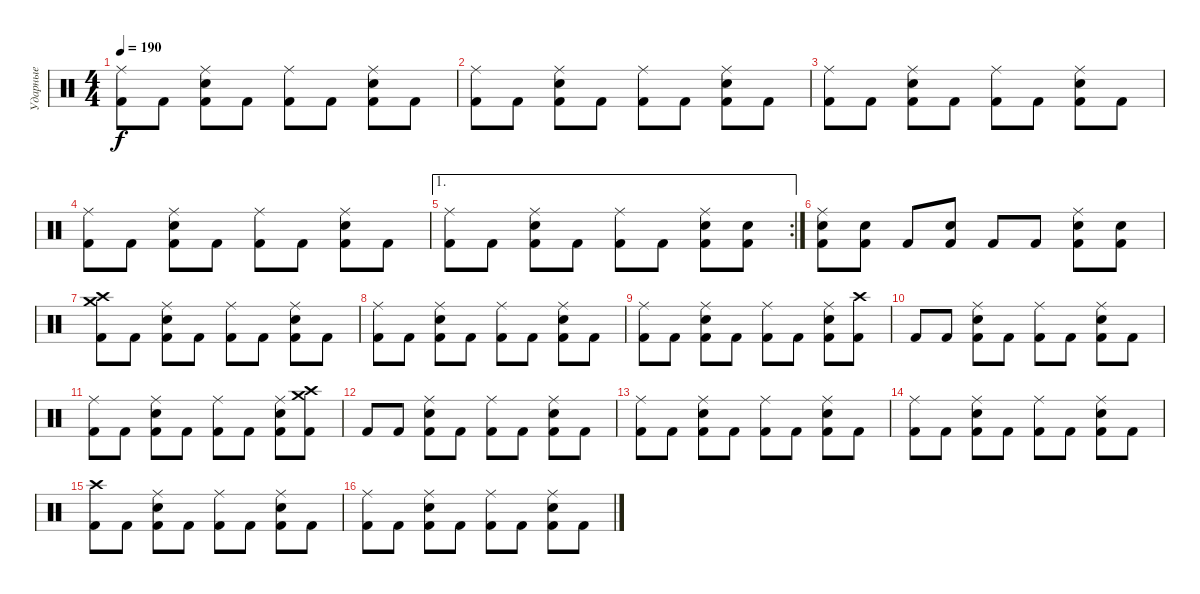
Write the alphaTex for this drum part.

\track ("Ударные" "Ударные") {instrument percussion}
\staff
\articulation defaults
\ts (4 4)
\tempo 190
\clef neutral
\ks c
("Ride (middle)" "Kick (hit) 2").8{dy f} "Kick (hit) 2".8 ("Ride (middle)" "Snare (hit) 2" "Kick (hit) 2").8 "Kick (hit) 2".8 ("Ride (middle)" "Kick (hit) 2").8 "Kick (hit) 2".8 ("Ride (middle)" "Snare (hit) 2" "Kick (hit) 2").8 "Kick (hit) 2".8 |
("Ride (middle)" "Kick (hit) 2").8 "Kick (hit) 2".8 ("Ride (middle)" "Snare (hit) 2" "Kick (hit) 2").8 "Kick (hit) 2".8 ("Ride (middle)" "Kick (hit) 2").8 "Kick (hit) 2".8 ("Ride (middle)" "Snare (hit) 2" "Kick (hit) 2").8 "Kick (hit) 2".8 |
("Ride (middle)" "Kick (hit) 2").8 "Kick (hit) 2".8 ("Ride (middle)" "Snare (hit) 2" "Kick (hit) 2").8 "Kick (hit) 2".8 ("Ride (middle)" "Kick (hit) 2").8 "Kick (hit) 2".8 ("Ride (middle)" "Snare (hit) 2" "Kick (hit) 2").8 "Kick (hit) 2".8 |
("Ride (middle)" "Kick (hit) 2").8 "Kick (hit) 2".8 ("Ride (middle)" "Snare (hit) 2" "Kick (hit) 2").8 "Kick (hit) 2".8 ("Ride (middle)" "Kick (hit) 2").8 "Kick (hit) 2".8 ("Ride (middle)" "Snare (hit) 2" "Kick (hit) 2").8 "Kick (hit) 2".8 |
\ae 1
\rc 2
("Ride (middle)" "Kick (hit) 2").8 "Kick (hit) 2".8 ("Ride (middle)" "Snare (hit) 2" "Kick (hit) 2").8 "Kick (hit) 2".8 ("Ride (middle)" "Kick (hit) 2").8 "Kick (hit) 2".8 ("Ride (middle)" "Snare (hit) 2" "Kick (hit) 2").8 ("Electric Snare (hit)" "Kick (hit) 2").8 |
("Ride (middle)" "Snare (hit) 2" "Kick (hit) 2").8 ("Snare (hit) 2" "Kick (hit) 2").8 "Kick (hit) 2".8 ("Snare (hit) 2" "Kick (hit) 2").8 "Kick (hit) 2".8 "Kick (hit) 2".8 ("Ride (middle)" "Snare (hit) 2" "Kick (hit) 2").8 ("Electric Snare (hit)" "Kick (hit) 2").8 |
("Crash high (hit)" "Crash medium (hit)" "Kick (hit) 2").8 "Kick (hit) 2".8 ("Ride (middle)" "Snare (hit) 2" "Kick (hit) 2").8 "Kick (hit) 2".8 ("Ride (middle)" "Kick (hit) 2").8 "Kick (hit) 2".8 ("Ride (middle)" "Snare (hit) 2" "Kick (hit) 2").8 "Kick (hit) 2".8 |
("Ride (middle)" "Kick (hit) 2").8 "Kick (hit) 2".8 ("Ride (middle)" "Snare (hit) 2" "Kick (hit) 2").8 "Kick (hit) 2".8 ("Ride (middle)" "Kick (hit) 2").8 "Kick (hit) 2".8 ("Ride (middle)" "Snare (hit) 2" "Kick (hit) 2").8 "Kick (hit) 2".8 |
("Ride (middle)" "Kick (hit) 2").8 "Kick (hit) 2".8 ("Ride (middle)" "Snare (hit) 2" "Kick (hit) 2").8 "Kick (hit) 2".8 ("Ride (middle)" "Kick (hit) 2").8 "Kick (hit) 2".8 ("Ride (middle)" "Snare (hit) 2" "Kick (hit) 2").8 ("Crash high (hit)" "Kick (hit) 2").8 |
"Kick (hit) 2".8 "Kick (hit) 2".8 ("Ride (middle)" "Snare (hit) 2" "Kick (hit) 2").8 "Kick (hit) 2".8 ("Ride (middle)" "Kick (hit) 2").8 "Kick (hit) 2".8 ("Ride (middle)" "Snare (hit) 2" "Kick (hit) 2").8 "Kick (hit) 2".8 |
("Ride (middle)" "Kick (hit) 2").8 "Kick (hit) 2".8 ("Ride (middle)" "Snare (hit) 2" "Kick (hit) 2").8 "Kick (hit) 2".8 ("Ride (middle)" "Kick (hit) 2").8 "Kick (hit) 2".8 ("Ride (middle)" "Snare (hit) 2" "Kick (hit) 2").8 ("Crash high (hit)" "Crash medium (hit)" "Kick (hit) 2").8 |
"Kick (hit) 2".8 "Kick (hit) 2".8 ("Ride (middle)" "Snare (hit) 2" "Kick (hit) 2").8 "Kick (hit) 2".8 ("Ride (middle)" "Kick (hit) 2").8 "Kick (hit) 2".8 ("Ride (middle)" "Snare (hit) 2" "Kick (hit) 2").8 "Kick (hit) 2".8 |
("Ride (middle)" "Kick (hit) 2").8 "Kick (hit) 2".8 ("Ride (middle)" "Snare (hit) 2" "Kick (hit) 2").8 "Kick (hit) 2".8 ("Ride (middle)" "Kick (hit) 2").8 "Kick (hit) 2".8 ("Ride (middle)" "Snare (hit) 2" "Kick (hit) 2").8 "Kick (hit) 2".8 |
("Ride (middle)" "Kick (hit) 2").8 "Kick (hit) 2".8 ("Ride (middle)" "Snare (hit) 2" "Kick (hit) 2").8 "Kick (hit) 2".8 ("Ride (middle)" "Kick (hit) 2").8 "Kick (hit) 2".8 ("Ride (middle)" "Snare (hit) 2" "Kick (hit) 2").8 "Kick (hit) 2".8 |
("Crash high (hit)" "Kick (hit) 2").8 "Kick (hit) 2".8 ("Ride (middle)" "Snare (hit) 2" "Kick (hit) 2").8 "Kick (hit) 2".8 ("Ride (middle)" "Kick (hit) 2").8 "Kick (hit) 2".8 ("Ride (middle)" "Snare (hit) 2" "Kick (hit) 2").8 "Kick (hit) 2".8 |
("Ride (middle)" "Kick (hit) 2").8 "Kick (hit) 2".8 ("Ride (middle)" "Snare (hit) 2" "Kick (hit) 2").8 "Kick (hit) 2".8 ("Ride (middle)" "Kick (hit) 2").8 "Kick (hit) 2".8 ("Ride (middle)" "Snare (hit) 2" "Kick (hit) 2").8 "Kick (hit) 2".8
